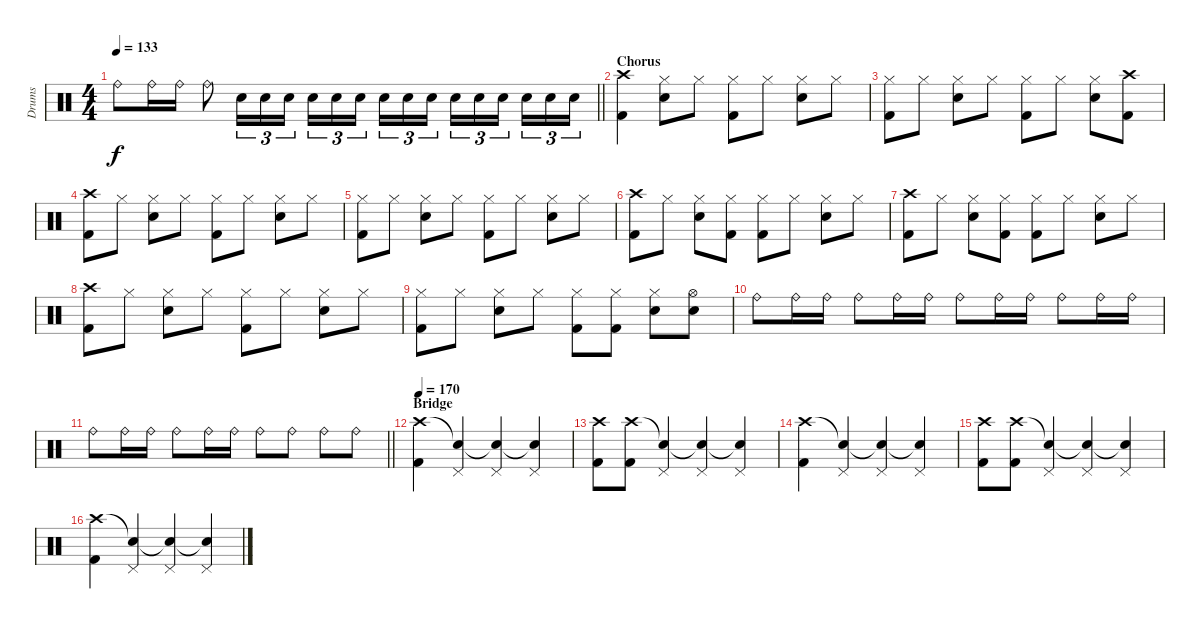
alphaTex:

\track ("Drums" "Drums") {instrument percussion}
\staff {score}
\articulation defaults
\ts (4 4)
\tempo 133
\clef neutral
\barLineRight lightlight
\ks c "Ride (bell)".8{dy f} "Ride (bell)".16 "Ride (bell)".16 "Ride (bell)".8 "Electric Snare (hit)".16{tu (3 2)} "Electric Snare (hit)".16{tu (3 2)} "Electric Snare (hit)".16{tu (3 2)} "Electric Snare (hit)".16{tu (3 2)} "Electric Snare (hit)".16{tu (3 2)} "Electric Snare (hit)".16{tu (3 2) beam splitsecondary} "Electric Snare (hit)".16{tu (3 2)} "Electric Snare (hit)".16{tu (3 2)} "Electric Snare (hit)".16{tu (3 2)} "Electric Snare (hit)".16{tu (3 2)} "Electric Snare (hit)".16{tu (3 2)} "Electric Snare (hit)".16{tu (3 2) beam splitsecondary} "Electric Snare (hit)".16{tu (3 2)} "Electric Snare (hit)".16{tu (3 2)} "Electric Snare (hit)".16{tu (3 2)}
|
\section ("" "Chorus")
("Kick (hit) 2" "Crash high (hit)").4 ("Electric Snare (hit)" "Hi-Hat (closed)").8 "Hi-Hat (closed)".8 ("Kick (hit) 2" "Hi-Hat (closed)").8 "Hi-Hat (closed)".8 ("Electric Snare (hit)" "Hi-Hat (closed)").8 "Hi-Hat (closed)".8 |
("Kick (hit) 2" "Hi-Hat (closed)").8 "Hi-Hat (closed)".8 ("Electric Snare (hit)" "Hi-Hat (closed)").8 "Hi-Hat (closed)".8 ("Kick (hit) 2" "Hi-Hat (closed)").8 "Hi-Hat (closed)".8 ("Electric Snare (hit)" "Hi-Hat (closed)").8 ("Kick (hit) 2" "Crash high (hit)").8 |
("Kick (hit) 2" "Crash high (hit)").8 "Hi-Hat (closed)".8 ("Electric Snare (hit)" "Hi-Hat (closed)").8 "Hi-Hat (closed)".8 ("Kick (hit) 2" "Hi-Hat (closed)").8 "Hi-Hat (closed)".8 ("Electric Snare (hit)" "Hi-Hat (closed)").8 "Hi-Hat (closed)".8 |
("Kick (hit) 2" "Hi-Hat (closed)").8 "Hi-Hat (closed)".8 ("Electric Snare (hit)" "Hi-Hat (closed)").8 "Hi-Hat (closed)".8 ("Kick (hit) 2" "Hi-Hat (closed)").8 "Hi-Hat (closed)".8 ("Electric Snare (hit)" "Hi-Hat (closed)").8 "Hi-Hat (closed)".8 |
("Kick (hit) 2" "Crash high (hit)").8 "Hi-Hat (closed)".8 ("Electric Snare (hit)" "Hi-Hat (closed)").8 ("Kick (hit) 2" "Hi-Hat (closed)").8 ("Kick (hit) 2" "Hi-Hat (closed)").8 "Hi-Hat (closed)".8 ("Electric Snare (hit)" "Hi-Hat (closed)").8 "Hi-Hat (closed)".8 |
("Kick (hit) 2" "Crash high (hit)").8 "Hi-Hat (closed)".8 ("Electric Snare (hit)" "Hi-Hat (closed)").8 ("Kick (hit) 2" "Hi-Hat (closed)").8 ("Kick (hit) 2" "Hi-Hat (closed)").8 "Hi-Hat (closed)".8 ("Electric Snare (hit)" "Hi-Hat (closed)").8 "Hi-Hat (closed)".8 |
("Kick (hit) 2" "Crash high (hit)").8 "Hi-Hat (closed)".8 ("Electric Snare (hit)" "Hi-Hat (closed)").8 "Hi-Hat (closed)".8 ("Kick (hit) 2" "Hi-Hat (closed)").8 "Hi-Hat (closed)".8 ("Electric Snare (hit)" "Hi-Hat (closed)").8 "Hi-Hat (closed)".8 |
("Kick (hit) 2" "Hi-Hat (closed)").8 "Hi-Hat (closed)".8 ("Electric Snare (hit)" "Hi-Hat (closed)").8 "Hi-Hat (closed)".8 ("Kick (hit) 2" "Hi-Hat (closed)").8 ("Kick (hit) 2" "Hi-Hat (closed)").8 ("Electric Snare (hit)" "Hi-Hat (closed)").8 ("Electric Snare (hit)" "Hi-Hat (open)").8 |
"Ride (bell)".8 "Ride (bell)".16 "Ride (bell)".16 "Ride (bell)".8 "Ride (bell)".16 "Ride (bell)".16 "Ride (bell)".8 "Ride (bell)".16 "Ride (bell)".16 "Ride (bell)".8 "Ride (bell)".16 "Ride (bell)".16 |
\barLineRight lightlight "Ride (bell)".8 "Ride (bell)".16 "Ride (bell)".16 "Ride (bell)".8 "Ride (bell)".16 "Ride (bell)".16 "Ride (bell)".8 "Ride (bell)".8 "Ride (bell)".8 "Ride (bell)".8
|
\section ("" "Bridge")
\tempo 170
("Kick (hit) 2" "Crash high (hit)").4 ("Pedal Hi-Hat (hit)" "Snare (hit)"{t}).4 ("Pedal Hi-Hat (hit)" "Snare (hit)"{t}).4 ("Pedal Hi-Hat (hit)" "Snare (hit)"{t}).4 |
("Kick (hit) 2" "Crash high (hit)").8 ("Kick (hit) 2" "Crash high (hit)").8 ("Pedal Hi-Hat (hit)" "Snare (hit)"{t}).4 ("Pedal Hi-Hat (hit)" "Snare (hit)"{t}).4 ("Pedal Hi-Hat (hit)" "Snare (hit)"{t}).4 |
("Kick (hit) 2" "Crash high (hit)").4 ("Pedal Hi-Hat (hit)" "Snare (hit)"{t}).4 ("Pedal Hi-Hat (hit)" "Snare (hit)"{t}).4 ("Pedal Hi-Hat (hit)" "Snare (hit)"{t}).4 |
("Kick (hit) 2" "Crash high (hit)").8 ("Kick (hit) 2" "Crash high (hit)").8 ("Pedal Hi-Hat (hit)" "Snare (hit)"{t}).4 ("Pedal Hi-Hat (hit)" "Snare (hit)"{t}).4 ("Pedal Hi-Hat (hit)" "Snare (hit)"{t}).4 |
("Kick (hit) 2" "Crash high (hit)").4 ("Pedal Hi-Hat (hit)" "Snare (hit)"{t}).4 ("Pedal Hi-Hat (hit)" "Snare (hit)"{t}).4 ("Pedal Hi-Hat (hit)" "Snare (hit)"{t}).4
